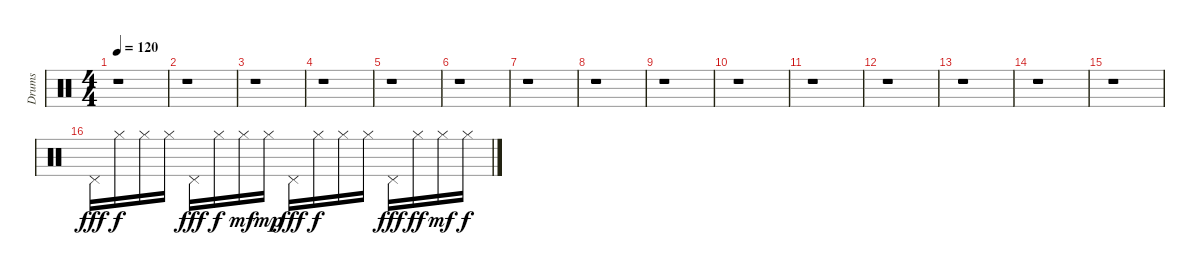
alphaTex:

\track ("Drums" "Drums") {instrument percussion}
\staff {score}
\articulation defaults
\ts (4 4)
\tempo 120
\clef neutral
\ks c
r.1{dy ff} |
r.1 |
r.1 |
r.1 |
r.1 |
r.1 |
r.1 |
r.1 |
r.1 |
r.1 |
r.1 |
r.1 |
r.1 |
r.1 |
r.1 |
"Pedal Hi-Hat (hit)".16{dy fff} "Hi-Hat (closed)".16{dy f} "Hi-Hat (closed)".16 "Hi-Hat (closed)".16 "Pedal Hi-Hat (hit)".16{dy fff} "Hi-Hat (closed)".16{dy f} "Hi-Hat (closed)".16{dy mf} "Hi-Hat (closed)".16{dy mp} "Pedal Hi-Hat (hit)".16{dy fff} "Hi-Hat (closed)".16{dy f} "Hi-Hat (closed)".16 "Hi-Hat (closed)".16 "Pedal Hi-Hat (hit)".16{dy fff} "Hi-Hat (closed)".16{dy ff} "Hi-Hat (closed)".16{dy mf} "Hi-Hat (closed)".16{dy f}
